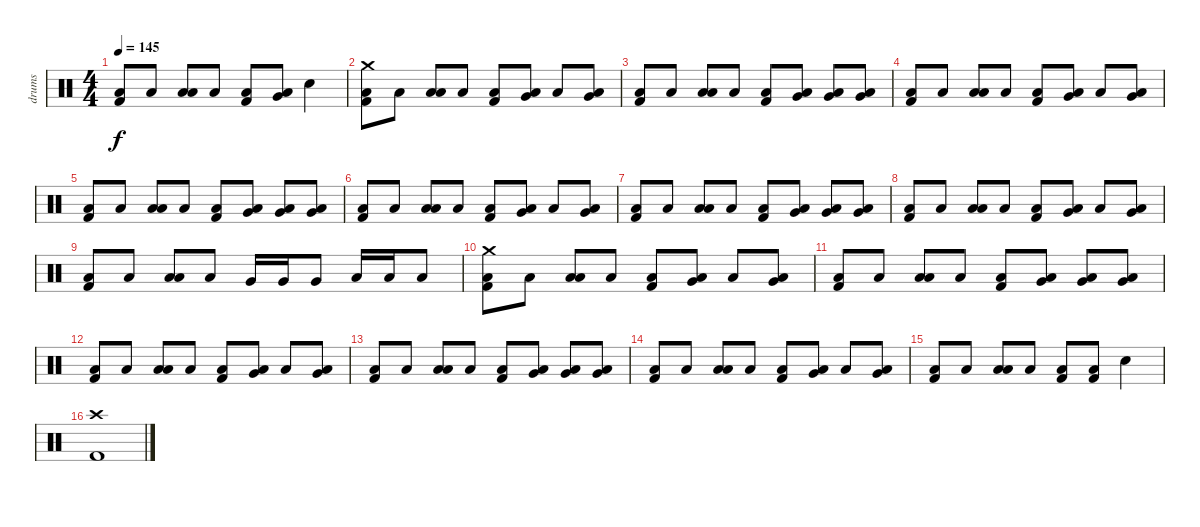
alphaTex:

\track ("drums" "drums") {instrument percussion}
\staff {score}
\articulation defaults
\ts (4 4)
\tempo 145
\clef neutral
\ks c
("Low Floor Tom (hit)" "Kick (hit) 2").8{dy f} "Low Floor Tom (hit)".8 ("Low Tom (hit)" "Low Floor Tom (hit)").8 "Low Floor Tom (hit)".8 ("Low Floor Tom (hit)" "Kick (hit) 2").8 ("Very Low Tom (hit)" "Low Floor Tom (hit)").8 "Electric Snare (hit)".4 |
("Crash medium (hit)" "Low Floor Tom (hit)" "Kick (hit) 2").8 "Low Floor Tom (hit)".8 ("Low Tom (hit)" "Low Floor Tom (hit)").8 "Low Floor Tom (hit)".8 ("Low Floor Tom (hit)" "Kick (hit) 2").8 ("Very Low Tom (hit)" "Low Floor Tom (hit)").8 "Low Floor Tom (hit)".8 ("Very Low Tom (hit)" "Low Floor Tom (hit)").8 |
("Low Floor Tom (hit)" "Kick (hit) 2").8 "Low Floor Tom (hit)".8 ("Low Tom (hit)" "Low Floor Tom (hit)").8 "Low Floor Tom (hit)".8 ("Low Floor Tom (hit)" "Kick (hit) 2").8 ("Very Low Tom (hit)" "Low Floor Tom (hit)").8 ("Very Low Tom (hit)" "Low Floor Tom (hit)").8 ("Very Low Tom (hit)" "Low Floor Tom (hit)").8 |
("Low Floor Tom (hit)" "Kick (hit) 2").8 "Low Floor Tom (hit)".8 ("Low Tom (hit)" "Low Floor Tom (hit)").8 "Low Floor Tom (hit)".8 ("Low Floor Tom (hit)" "Kick (hit) 2").8 ("Very Low Tom (hit)" "Low Floor Tom (hit)").8 "Low Floor Tom (hit)".8 ("Very Low Tom (hit)" "Low Floor Tom (hit)").8 |
("Low Floor Tom (hit)" "Kick (hit) 2").8 "Low Floor Tom (hit)".8 ("Low Tom (hit)" "Low Floor Tom (hit)").8 "Low Floor Tom (hit)".8 ("Low Floor Tom (hit)" "Kick (hit) 2").8 ("Very Low Tom (hit)" "Low Floor Tom (hit)").8 ("Very Low Tom (hit)" "Low Floor Tom (hit)").8 ("Very Low Tom (hit)" "Low Floor Tom (hit)").8 |
("Low Floor Tom (hit)" "Kick (hit) 2").8 "Low Floor Tom (hit)".8 ("Low Tom (hit)" "Low Floor Tom (hit)").8 "Low Floor Tom (hit)".8 ("Low Floor Tom (hit)" "Kick (hit) 2").8 ("Very Low Tom (hit)" "Low Floor Tom (hit)").8 "Low Floor Tom (hit)".8 ("Very Low Tom (hit)" "Low Floor Tom (hit)").8 |
("Low Floor Tom (hit)" "Kick (hit) 2").8 "Low Floor Tom (hit)".8 ("Low Tom (hit)" "Low Floor Tom (hit)").8 "Low Floor Tom (hit)".8 ("Low Floor Tom (hit)" "Kick (hit) 2").8 ("Very Low Tom (hit)" "Low Floor Tom (hit)").8 ("Very Low Tom (hit)" "Low Floor Tom (hit)").8 ("Very Low Tom (hit)" "Low Floor Tom (hit)").8 |
("Low Floor Tom (hit)" "Kick (hit) 2").8 "Low Floor Tom (hit)".8 ("Low Tom (hit)" "Low Floor Tom (hit)").8 "Low Floor Tom (hit)".8 ("Low Floor Tom (hit)" "Kick (hit) 2").8 ("Very Low Tom (hit)" "Low Floor Tom (hit)").8 "Low Floor Tom (hit)".8 ("Very Low Tom (hit)" "Low Floor Tom (hit)").8 |
("Low Floor Tom (hit)" "Kick (hit) 2").8 "Low Floor Tom (hit)".8 ("Low Tom (hit)" "Low Floor Tom (hit)").8 "Low Floor Tom (hit)".8 "Very Low Tom (hit)".16 "Very Low Tom (hit)".16 "Very Low Tom (hit)".8 "Low Floor Tom (hit)".16 "Low Floor Tom (hit)".16 "Low Floor Tom (hit)".8 |
("Crash medium (hit)" "Low Floor Tom (hit)" "Kick (hit) 2").8 "Low Floor Tom (hit)".8 ("Low Tom (hit)" "Low Floor Tom (hit)").8 "Low Floor Tom (hit)".8 ("Low Floor Tom (hit)" "Kick (hit) 2").8 ("Very Low Tom (hit)" "Low Floor Tom (hit)").8 "Low Floor Tom (hit)".8 ("Very Low Tom (hit)" "Low Floor Tom (hit)").8 |
("Low Floor Tom (hit)" "Kick (hit) 2").8 "Low Floor Tom (hit)".8 ("Low Tom (hit)" "Low Floor Tom (hit)").8 "Low Floor Tom (hit)".8 ("Low Floor Tom (hit)" "Kick (hit) 2").8 ("Very Low Tom (hit)" "Low Floor Tom (hit)").8 ("Very Low Tom (hit)" "Low Floor Tom (hit)").8 ("Very Low Tom (hit)" "Low Floor Tom (hit)").8 |
("Low Floor Tom (hit)" "Kick (hit) 2").8 "Low Floor Tom (hit)".8 ("Low Tom (hit)" "Low Floor Tom (hit)").8 "Low Floor Tom (hit)".8 ("Low Floor Tom (hit)" "Kick (hit) 2").8 ("Very Low Tom (hit)" "Low Floor Tom (hit)").8 "Low Floor Tom (hit)".8 ("Very Low Tom (hit)" "Low Floor Tom (hit)").8 |
("Low Floor Tom (hit)" "Kick (hit) 2").8 "Low Floor Tom (hit)".8 ("Low Tom (hit)" "Low Floor Tom (hit)").8 "Low Floor Tom (hit)".8 ("Low Floor Tom (hit)" "Kick (hit) 2").8 ("Very Low Tom (hit)" "Low Floor Tom (hit)").8 ("Very Low Tom (hit)" "Low Floor Tom (hit)").8 ("Very Low Tom (hit)" "Low Floor Tom (hit)").8 |
("Low Floor Tom (hit)" "Kick (hit) 2").8 "Low Floor Tom (hit)".8 ("Low Tom (hit)" "Low Floor Tom (hit)").8 "Low Floor Tom (hit)".8 ("Low Floor Tom (hit)" "Kick (hit) 2").8 ("Very Low Tom (hit)" "Low Floor Tom (hit)").8 "Low Floor Tom (hit)".8 ("Very Low Tom (hit)" "Low Floor Tom (hit)").8 |
("Low Floor Tom (hit)" "Kick (hit) 2").8 "Low Floor Tom (hit)".8 ("Low Tom (hit)" "Low Floor Tom (hit)").8 "Low Floor Tom (hit)".8 ("Low Floor Tom (hit)" "Kick (hit) 2").8 ("Low Floor Tom (hit)" "Kick (hit) 2").8 "Electric Snare (hit)".4 |
("Crash high (hit)" "Kick (hit) 2").1
